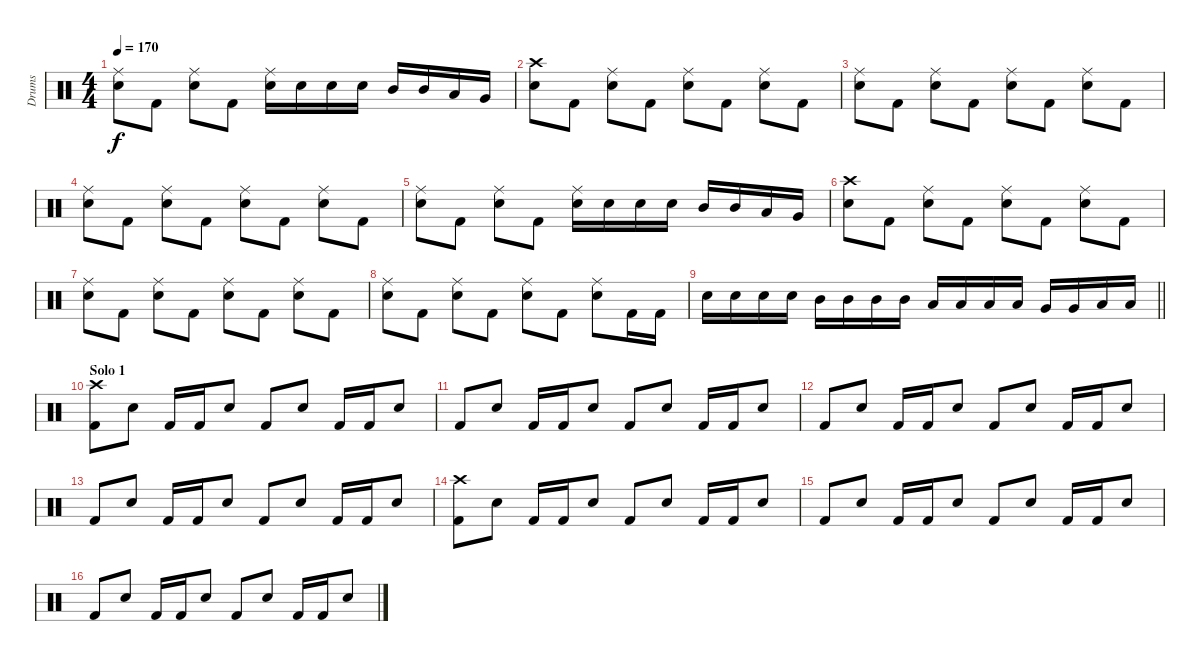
\track ("Drums" "Drums") {instrument percussion}
\staff {score}
\articulation defaults
\ts (4 4)
\tempo 170
\clef neutral
\ks c
("Ride (middle)" "Electric Snare (hit)").8{dy f} "Kick (hit) 2".8 ("Ride (middle)" "Electric Snare (hit)").8 "Kick (hit) 2".8 ("Ride (middle)" "Electric Snare (hit)").16 "Electric Snare (hit)".16 "Electric Snare (hit)".16 "Electric Snare (hit)".16 "Mid Tom (hit)".16 "Mid Tom (hit)".16 "Low Tom (hit)".16 "Very Low Tom (hit)".16 |
("Crash high (hit)" "Electric Snare (hit)").8 "Kick (hit) 2".8 ("Ride (middle)" "Electric Snare (hit)").8 "Kick (hit) 2".8 ("Ride (middle)" "Electric Snare (hit)").8 "Kick (hit) 2".8 ("Ride (middle)" "Electric Snare (hit)").8 "Kick (hit) 2".8 |
("Ride (middle)" "Electric Snare (hit)").8 "Kick (hit) 2".8 ("Ride (middle)" "Electric Snare (hit)").8 "Kick (hit) 2".8 ("Ride (middle)" "Electric Snare (hit)").8 "Kick (hit) 2".8 ("Ride (middle)" "Electric Snare (hit)").8 "Kick (hit) 2".8 |
("Ride (middle)" "Electric Snare (hit)").8 "Kick (hit) 2".8 ("Ride (middle)" "Electric Snare (hit)").8 "Kick (hit) 2".8 ("Ride (middle)" "Electric Snare (hit)").8 "Kick (hit) 2".8 ("Ride (middle)" "Electric Snare (hit)").8 "Kick (hit) 2".8 |
("Ride (middle)" "Electric Snare (hit)").8 "Kick (hit) 2".8 ("Ride (middle)" "Electric Snare (hit)").8 "Kick (hit) 2".8 ("Ride (middle)" "Electric Snare (hit)").16 "Electric Snare (hit)".16 "Electric Snare (hit)".16 "Electric Snare (hit)".16 "Mid Tom (hit)".16 "Mid Tom (hit)".16 "Low Tom (hit)".16 "Very Low Tom (hit)".16 |
("Crash high (hit)" "Electric Snare (hit)").8 "Kick (hit) 2".8 ("Ride (middle)" "Electric Snare (hit)").8 "Kick (hit) 2".8 ("Ride (middle)" "Electric Snare (hit)").8 "Kick (hit) 2".8 ("Ride (middle)" "Electric Snare (hit)").8 "Kick (hit) 2".8 |
("Ride (middle)" "Electric Snare (hit)").8 "Kick (hit) 2".8 ("Ride (middle)" "Electric Snare (hit)").8 "Kick (hit) 2".8 ("Ride (middle)" "Electric Snare (hit)").8 "Kick (hit) 2".8 ("Ride (middle)" "Electric Snare (hit)").8 "Kick (hit) 2".8 |
("Ride (middle)" "Electric Snare (hit)").8 "Kick (hit) 2".8 ("Ride (middle)" "Electric Snare (hit)").8 "Kick (hit) 2".8 ("Ride (middle)" "Electric Snare (hit)").8 "Kick (hit) 2".8 ("Ride (middle)" "Electric Snare (hit)").8 "Kick (hit) 2".16 "Kick (hit) 2".16 |
\barLineRight lightlight "Electric Snare (hit)".16 "Electric Snare (hit)".16 "Electric Snare (hit)".16 "Electric Snare (hit)".16 "Mid Tom (hit)".16 "Mid Tom (hit)".16 "Mid Tom (hit)".16 "Mid Tom (hit)".16 "Low Tom (hit)".16 "Low Tom (hit)".16 "Low Tom (hit)".16 "Low Tom (hit)".16 "Very Low Tom (hit)".16 "Very Low Tom (hit)".16 "Low Floor Tom (hit)".16 "Low Floor Tom (hit)".16
|
\section ("" "Solo 1")
("Crash high (hit)" "Kick (hit) 2").8 "Snare (hit) 2".8 "Kick (hit) 2".16 "Kick (hit) 2".16 "Snare (hit) 2".8 "Kick (hit) 2".8 "Snare (hit) 2".8 "Kick (hit) 2".16 "Kick (hit) 2".16 "Snare (hit) 2".8 |
"Kick (hit) 2".8 "Snare (hit) 2".8 "Kick (hit) 2".16 "Kick (hit) 2".16 "Snare (hit) 2".8 "Kick (hit) 2".8 "Snare (hit) 2".8 "Kick (hit) 2".16 "Kick (hit) 2".16 "Snare (hit) 2".8 |
"Kick (hit) 2".8 "Snare (hit) 2".8 "Kick (hit) 2".16 "Kick (hit) 2".16 "Snare (hit) 2".8 "Kick (hit) 2".8 "Snare (hit) 2".8 "Kick (hit) 2".16 "Kick (hit) 2".16 "Snare (hit) 2".8 |
"Kick (hit) 2".8 "Snare (hit) 2".8 "Kick (hit) 2".16 "Kick (hit) 2".16 "Snare (hit) 2".8 "Kick (hit) 2".8 "Snare (hit) 2".8 "Kick (hit) 2".16 "Kick (hit) 2".16 "Snare (hit) 2".8 |
("Crash high (hit)" "Kick (hit) 2").8 "Snare (hit) 2".8 "Kick (hit) 2".16 "Kick (hit) 2".16 "Snare (hit) 2".8 "Kick (hit) 2".8 "Snare (hit) 2".8 "Kick (hit) 2".16 "Kick (hit) 2".16 "Snare (hit) 2".8 |
"Kick (hit) 2".8 "Snare (hit) 2".8 "Kick (hit) 2".16 "Kick (hit) 2".16 "Snare (hit) 2".8 "Kick (hit) 2".8 "Snare (hit) 2".8 "Kick (hit) 2".16 "Kick (hit) 2".16 "Snare (hit) 2".8 |
"Kick (hit) 2".8 "Snare (hit) 2".8 "Kick (hit) 2".16 "Kick (hit) 2".16 "Snare (hit) 2".8 "Kick (hit) 2".8 "Snare (hit) 2".8 "Kick (hit) 2".16 "Kick (hit) 2".16 "Snare (hit) 2".8
